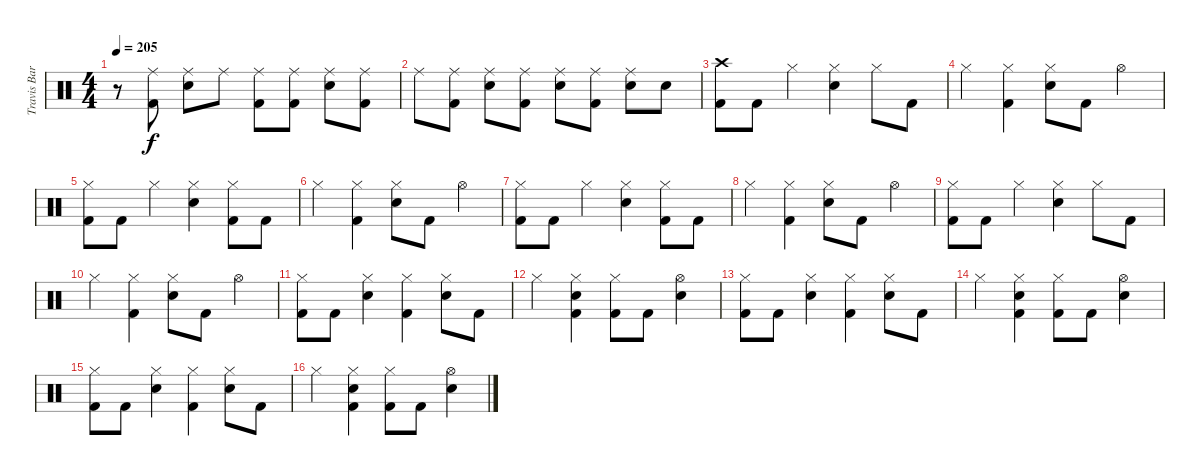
\track ("Travis Barker (Drums)" "Travis Bar") {instrument percussion}
\staff {score}
\articulation defaults
\ts (4 4)
\tempo 205
\clef neutral
\ks c
r.8{dy f} ("Ride (middle)" "Kick (hit) 2").8 ("Ride (middle)" "Electric Snare (hit)").8 "Ride (middle)".8 ("Ride (middle)" "Kick (hit) 2").8 ("Ride (middle)" "Kick (hit) 2").8 ("Ride (middle)" "Electric Snare (hit)").8 ("Ride (middle)" "Kick (hit) 2").8 |
"Ride (middle)".8 ("Ride (middle)" "Kick (hit) 2").8 ("Ride (middle)" "Electric Snare (hit)").8 ("Ride (middle)" "Kick (hit) 2").8 ("Ride (middle)" "Electric Snare (hit)").8 ("Ride (middle)" "Kick (hit) 2").8 ("Ride (middle)" "Electric Snare (hit)").8 "Electric Snare (hit)".8 |
("Crash high (hit)" "Kick (hit) 2").8 "Kick (hit) 2".8 "Hi-Hat (closed)".4 ("Hi-Hat (closed)" "Electric Snare (hit)").4 "Hi-Hat (closed)".8 "Kick (hit) 2".8 |
"Hi-Hat (closed)".4 ("Hi-Hat (closed)" "Kick (hit) 2").4 ("Hi-Hat (closed)" "Electric Snare (hit)").8 "Kick (hit) 2".8 "Hi-Hat (open)".4 |
("Hi-Hat (closed)" "Kick (hit) 2").8 "Kick (hit) 2".8 "Hi-Hat (closed)".4 ("Hi-Hat (closed)" "Electric Snare (hit)").4 ("Hi-Hat (closed)" "Kick (hit) 2").8 "Kick (hit) 2".8 |
"Hi-Hat (closed)".4 ("Hi-Hat (closed)" "Kick (hit) 2").4 ("Hi-Hat (closed)" "Electric Snare (hit)").8 "Kick (hit) 2".8 "Hi-Hat (open)".4 |
("Hi-Hat (closed)" "Kick (hit) 2").8 "Kick (hit) 2".8 "Hi-Hat (closed)".4 ("Hi-Hat (closed)" "Electric Snare (hit)").4 ("Hi-Hat (closed)" "Kick (hit) 2").8 "Kick (hit) 2".8 |
"Hi-Hat (closed)".4 ("Hi-Hat (closed)" "Kick (hit) 2").4 ("Hi-Hat (closed)" "Electric Snare (hit)").8 "Kick (hit) 2".8 "Hi-Hat (open)".4 |
("Hi-Hat (closed)" "Kick (hit) 2").8 "Kick (hit) 2".8 "Hi-Hat (closed)".4 ("Hi-Hat (closed)" "Electric Snare (hit)").4 "Hi-Hat (closed)".8 "Kick (hit) 2".8 |
"Hi-Hat (closed)".4 ("Hi-Hat (closed)" "Kick (hit) 2").4 ("Hi-Hat (closed)" "Electric Snare (hit)").8 "Kick (hit) 2".8 "Hi-Hat (open)".4 |
("Hi-Hat (closed)" "Kick (hit) 2").8 "Kick (hit) 2".8 ("Hi-Hat (closed)" "Electric Snare (hit)").4 ("Hi-Hat (closed)" "Kick (hit) 2").4 ("Hi-Hat (closed)" "Electric Snare (hit)").8 "Kick (hit) 2".8 |
"Hi-Hat (closed)".4 ("Hi-Hat (closed)" "Electric Snare (hit)" "Kick (hit) 2").4 ("Hi-Hat (closed)" "Kick (hit) 2").8 "Kick (hit) 2".8 ("Hi-Hat (open)" "Electric Snare (hit)").4 |
("Hi-Hat (closed)" "Kick (hit) 2").8 "Kick (hit) 2".8 ("Hi-Hat (closed)" "Electric Snare (hit)").4 ("Hi-Hat (closed)" "Kick (hit) 2").4 ("Hi-Hat (closed)" "Electric Snare (hit)").8 "Kick (hit) 2".8 |
"Hi-Hat (closed)".4 ("Hi-Hat (closed)" "Electric Snare (hit)" "Kick (hit) 2").4 ("Hi-Hat (closed)" "Kick (hit) 2").8 "Kick (hit) 2".8 ("Hi-Hat (open)" "Electric Snare (hit)").4 |
("Hi-Hat (closed)" "Kick (hit) 2").8 "Kick (hit) 2".8 ("Hi-Hat (closed)" "Electric Snare (hit)").4 ("Hi-Hat (closed)" "Kick (hit) 2").4 ("Hi-Hat (closed)" "Electric Snare (hit)").8 "Kick (hit) 2".8 |
"Hi-Hat (closed)".4 ("Hi-Hat (closed)" "Electric Snare (hit)" "Kick (hit) 2").4 ("Hi-Hat (closed)" "Kick (hit) 2").8 "Kick (hit) 2".8 ("Hi-Hat (open)" "Electric Snare (hit)").4
